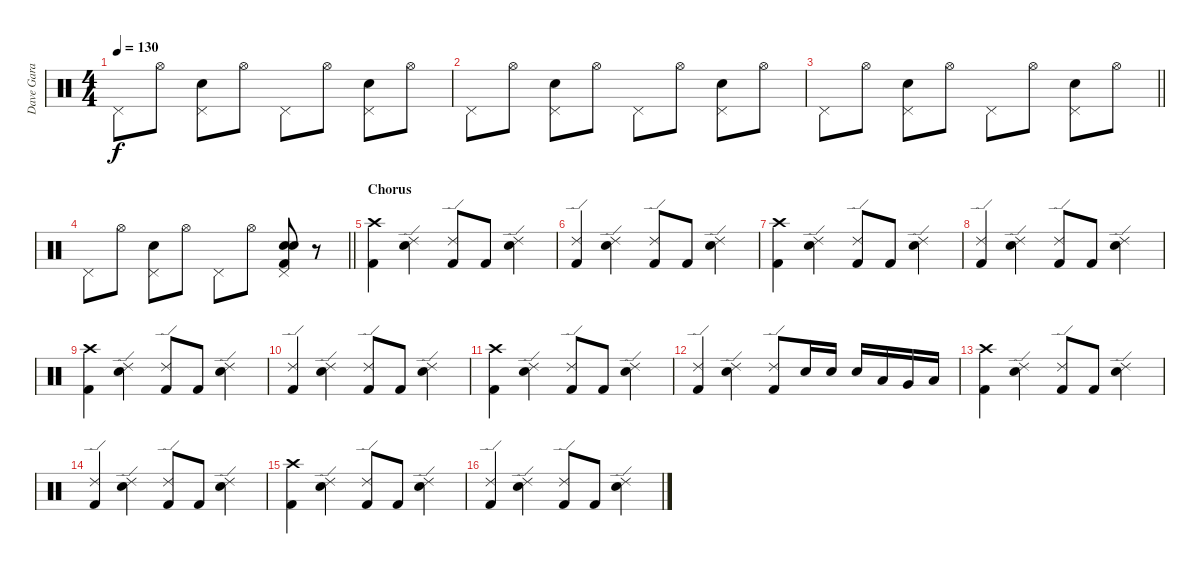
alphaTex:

\track ("Dave Gara" "Dave Gara") {instrument percussion}
\staff {score}
\articulation defaults
\ts (4 4)
\tempo 130
\clef neutral
\ks c "Pedal Hi-Hat (hit)".8{dy f} "Hi-Hat (open)".8
("Pedal Hi-Hat (hit)" "Electric Snare (hit)").8 "Hi-Hat (open)".8 "Pedal Hi-Hat (hit)".8 "Hi-Hat (open)".8 ("Pedal Hi-Hat (hit)" "Electric Snare (hit)").8 "Hi-Hat (open)".8 |
"Pedal Hi-Hat (hit)".8 "Hi-Hat (open)".8 ("Pedal Hi-Hat (hit)" "Electric Snare (hit)").8 "Hi-Hat (open)".8 "Pedal Hi-Hat (hit)".8 "Hi-Hat (open)".8 ("Pedal Hi-Hat (hit)" "Electric Snare (hit)").8 "Hi-Hat (open)".8 |
\barLineRight lightlight "Pedal Hi-Hat (hit)".8 "Hi-Hat (open)".8
("Pedal Hi-Hat (hit)" "Electric Snare (hit)").8 "Hi-Hat (open)".8 "Pedal Hi-Hat (hit)".8 "Hi-Hat (open)".8 ("Pedal Hi-Hat (hit)" "Electric Snare (hit)").8 "Hi-Hat (open)".8 |
\barLineRight lightlight "Pedal Hi-Hat (hit)".8 "Hi-Hat (open)".8
("Pedal Hi-Hat (hit)" "Electric Snare (hit)").8 "Hi-Hat (open)".8 "Pedal Hi-Hat (hit)".8 "Hi-Hat (open)".8 ("Pedal Hi-Hat (hit)" "Electric Snare (hit)" "Electric Snare (hit)" "Kick (hit) 2").8 r.8 |
\section ("" "Chorus")
("Crash high (hit)" "Kick (hit) 2").4 ("Ride (edge) 2" "Electric Snare (hit)").4 ("Ride (edge) 2" "Kick (hit) 2").8 "Kick (hit) 2".8 ("Ride (edge) 2" "Electric Snare (hit)").4 |
("Ride (edge) 2" "Kick (hit) 2").4 ("Ride (edge) 2" "Electric Snare (hit)").4 ("Ride (edge) 2" "Kick (hit) 2").8 "Kick (hit) 2".8 ("Ride (edge) 2" "Electric Snare (hit)").4 |
("Crash high (hit)" "Kick (hit) 2").4 ("Ride (edge) 2" "Electric Snare (hit)").4 ("Ride (edge) 2" "Kick (hit) 2").8 "Kick (hit) 2".8 ("Ride (edge) 2" "Electric Snare (hit)").4 |
("Ride (edge) 2" "Kick (hit) 2").4 ("Ride (edge) 2" "Electric Snare (hit)").4 ("Ride (edge) 2" "Kick (hit) 2").8 "Kick (hit) 2".8 ("Ride (edge) 2" "Electric Snare (hit)").4 |
("Crash high (hit)" "Kick (hit) 2").4 ("Ride (edge) 2" "Electric Snare (hit)").4 ("Ride (edge) 2" "Kick (hit) 2").8 "Kick (hit) 2".8 ("Ride (edge) 2" "Electric Snare (hit)").4 |
("Ride (edge) 2" "Kick (hit) 2").4 ("Ride (edge) 2" "Electric Snare (hit)").4 ("Ride (edge) 2" "Kick (hit) 2").8 "Kick (hit) 2".8 ("Ride (edge) 2" "Electric Snare (hit)").4 |
("Crash high (hit)" "Kick (hit) 2").4 ("Ride (edge) 2" "Electric Snare (hit)").4 ("Ride (edge) 2" "Kick (hit) 2").8 "Kick (hit) 2".8 ("Ride (edge) 2" "Electric Snare (hit)").4 |
("Ride (edge) 2" "Kick (hit) 2").4 ("Ride (edge) 2" "Electric Snare (hit)").4 ("Ride (edge) 2" "Kick (hit) 2").8 "Electric Snare (hit)".16 "Electric Snare (hit)".16 "Electric Snare (hit)".16 "Low Tom (hit)".16 "Very Low Tom (hit)".16 "Low Floor Tom (hit)".16 |
("Crash high (hit)" "Kick (hit) 2").4 ("Ride (edge) 2" "Electric Snare (hit)").4 ("Ride (edge) 2" "Kick (hit) 2").8 "Kick (hit) 2".8 ("Ride (edge) 2" "Electric Snare (hit)").4 |
("Ride (edge) 2" "Kick (hit) 2").4 ("Ride (edge) 2" "Electric Snare (hit)").4 ("Ride (edge) 2" "Kick (hit) 2").8 "Kick (hit) 2".8 ("Ride (edge) 2" "Electric Snare (hit)").4 |
("Crash high (hit)" "Kick (hit) 2").4 ("Ride (edge) 2" "Electric Snare (hit)").4 ("Ride (edge) 2" "Kick (hit) 2").8 "Kick (hit) 2".8 ("Ride (edge) 2" "Electric Snare (hit)").4 |
("Ride (edge) 2" "Kick (hit) 2").4 ("Ride (edge) 2" "Electric Snare (hit)").4 ("Ride (edge) 2" "Kick (hit) 2").8 "Kick (hit) 2".8 ("Ride (edge) 2" "Electric Snare (hit)").4
